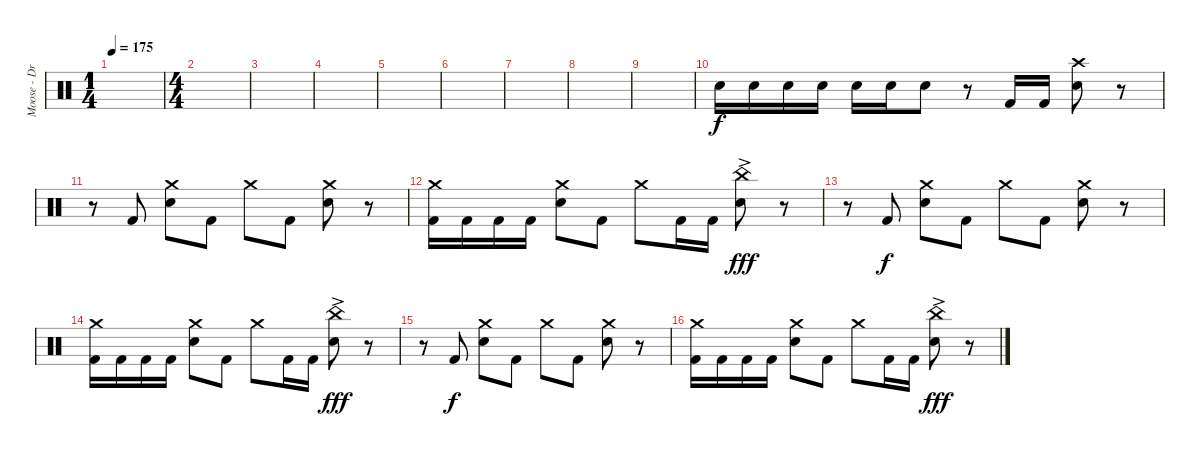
\track ("Moose - Drums" "Moose - Dr") {instrument percussion}
\staff {score}
\articulation defaults
\ts (1 4)
\tempo 175
\clef neutral
\ks c
|
\ts (4 4)
|
|
|
|
|
|
|
|
"Electric Snare (hit)".16 "Electric Snare (hit)".16 "Electric Snare (hit)".16 "Electric Snare (hit)".16 "Electric Snare (hit)".16 "Electric Snare (hit)".16 "Electric Snare (hit)".8 r.8 "Kick (hit) 2".16 "Kick (hit) 2".16 ("Crash high (hit)" "Electric Snare (hit)").8 r.8 |
r.8 "Kick (hit) 2".8 ("Crash medium (hit)" "Electric Snare (hit)").8 "Kick (hit) 2".8 "Crash medium (hit)".8 "Kick (hit) 2".8 ("Crash medium (hit)" "Electric Snare (hit)").8 r.8 |
("Crash medium (hit)" "Kick (hit) 2").16 "Kick (hit) 2".16 "Kick (hit) 2".16 "Kick (hit) 2".16 ("Crash medium (hit)" "Electric Snare (hit)").8 "Kick (hit) 2".8 "Crash medium (hit)".8 "Kick (hit) 2".16 "Kick (hit) 2".16 ("China (hit)"{ac} "Electric Snare (hit)").8{dy fff} r.8 |
r.8 "Kick (hit) 2".8{dy f} ("Crash medium (hit)" "Electric Snare (hit)").8 "Kick (hit) 2".8 "Crash medium (hit)".8 "Kick (hit) 2".8 ("Crash medium (hit)" "Electric Snare (hit)").8 r.8 |
("Crash medium (hit)" "Kick (hit) 2").16 "Kick (hit) 2".16 "Kick (hit) 2".16 "Kick (hit) 2".16 ("Crash medium (hit)" "Electric Snare (hit)").8 "Kick (hit) 2".8 "Crash medium (hit)".8 "Kick (hit) 2".16 "Kick (hit) 2".16 ("China (hit)"{ac} "Electric Snare (hit)").8{dy fff} r.8 |
r.8 "Kick (hit) 2".8{dy f} ("Crash medium (hit)" "Electric Snare (hit)").8 "Kick (hit) 2".8 "Crash medium (hit)".8 "Kick (hit) 2".8 ("Crash medium (hit)" "Electric Snare (hit)").8 r.8 |
("Crash medium (hit)" "Kick (hit) 2").16 "Kick (hit) 2".16 "Kick (hit) 2".16 "Kick (hit) 2".16 ("Crash medium (hit)" "Electric Snare (hit)").8 "Kick (hit) 2".8 "Crash medium (hit)".8 "Kick (hit) 2".16 "Kick (hit) 2".16 ("China (hit)"{ac} "Electric Snare (hit)").8{dy fff} r.8
